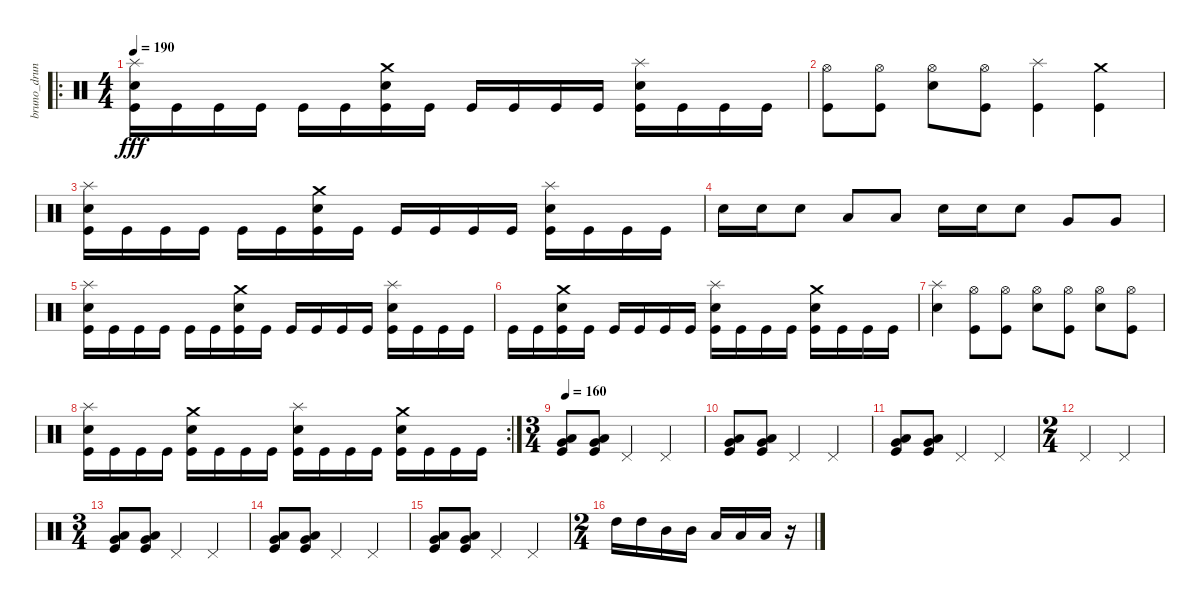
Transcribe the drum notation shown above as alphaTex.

\track ("bruno_druns" "bruno_drun") {instrument percussion}
\staff {score}
\articulation defaults
\ro
\ts (4 4)
\tempo 190
\clef neutral
\ks c
("Kick (hit)" "Electric Snare (hit)" "Splash (hit)").16{dy fff} "Kick (hit)".16 "Kick (hit)".16 "Kick (hit)".16 "Kick (hit)".16 "Kick (hit)".16 ("Kick (hit)" "Electric Snare (hit)" "Crash medium (hit)").16 "Kick (hit)".16 "Kick (hit)".16 "Kick (hit)".16 "Kick (hit)".16 "Kick (hit)".16 ("Kick (hit)" "Electric Snare (hit)" "Splash (hit)").16 "Kick (hit)".16 "Kick (hit)".16 "Kick (hit)".16 |
("Kick (hit)" "Hi-Hat (open)").8 ("Kick (hit)" "Hi-Hat (open)").8 ("Electric Snare (hit)" "Hi-Hat (open)").8 ("Kick (hit)" "Hi-Hat (open)").8 ("Kick (hit)" "Splash (hit)").4 ("Kick (hit)" "Crash medium (hit)").4 |
("Kick (hit)" "Electric Snare (hit)" "Splash (hit)").16 "Kick (hit)".16 "Kick (hit)".16 "Kick (hit)".16 "Kick (hit)".16 "Kick (hit)".16 ("Kick (hit)" "Electric Snare (hit)" "Crash medium (hit)").16 "Kick (hit)".16 "Kick (hit)".16 "Kick (hit)".16 "Kick (hit)".16 "Kick (hit)".16 ("Kick (hit)" "Electric Snare (hit)" "Splash (hit)").16 "Kick (hit)".16 "Kick (hit)".16 "Kick (hit)".16 |
"Electric Snare (hit)".16 "Electric Snare (hit)".16 "Electric Snare (hit)".8 "Low Tom (hit)".8 "Low Tom (hit)".8 "Electric Snare (hit)".16 "Electric Snare (hit)".16 "Electric Snare (hit)".8 "Very Low Tom (hit)".8 "Very Low Tom (hit)".8 |
("Kick (hit)" "Electric Snare (hit)" "Splash (hit)").16 "Kick (hit)".16 "Kick (hit)".16 "Kick (hit)".16 "Kick (hit)".16 "Kick (hit)".16 ("Kick (hit)" "Electric Snare (hit)" "Crash medium (hit)").16 "Kick (hit)".16 "Kick (hit)".16 "Kick (hit)".16 "Kick (hit)".16 "Kick (hit)".16 ("Kick (hit)" "Electric Snare (hit)" "Splash (hit)").16 "Kick (hit)".16 "Kick (hit)".16 "Kick (hit)".16 |
"Kick (hit)".16 "Kick (hit)".16 ("Kick (hit)" "Electric Snare (hit)" "Crash medium (hit)").16 "Kick (hit)".16 "Kick (hit)".16 "Kick (hit)".16 "Kick (hit)".16 "Kick (hit)".16 ("Kick (hit)" "Electric Snare (hit)" "Splash (hit)").16 "Kick (hit)".16 "Kick (hit)".16 "Kick (hit)".16 ("Kick (hit)" "Electric Snare (hit)" "Crash medium (hit)").16 "Kick (hit)".16 "Kick (hit)".16 "Kick (hit)".16 |
("Electric Snare (hit)" "Splash (hit)").4 ("Kick (hit)" "Hi-Hat (open)").8 ("Kick (hit)" "Hi-Hat (open)").8 ("Electric Snare (hit)" "Hi-Hat (open)").8 ("Kick (hit)" "Hi-Hat (open)").8 ("Electric Snare (hit)" "Hi-Hat (open)").8 ("Kick (hit)" "Hi-Hat (open)").8 |
\rc 2
("Kick (hit)" "Electric Snare (hit)" "Splash (hit)").16 "Kick (hit)".16 "Kick (hit)".16 "Kick (hit)".16 ("Kick (hit)" "Electric Snare (hit)" "Crash medium (hit)").16 "Kick (hit)".16 "Kick (hit)".16 "Kick (hit)".16 ("Kick (hit)" "Electric Snare (hit)" "Splash (hit)").16 "Kick (hit)".16 "Kick (hit)".16 "Kick (hit)".16 ("Kick (hit)" "Electric Snare (hit)" "Crash medium (hit)").16 "Kick (hit)".16 "Kick (hit)".16 "Kick (hit)".16 |
\ts (3 4)
\tempo 160
("Kick (hit)" "Low Tom (hit)" "Very Low Tom (hit)").8 ("Kick (hit)" "Low Tom (hit)" "Very Low Tom (hit)").8 "Pedal Hi-Hat (hit)".4 "Pedal Hi-Hat (hit)".4 |
("Kick (hit)" "Low Tom (hit)" "Very Low Tom (hit)").8 ("Kick (hit)" "Low Tom (hit)" "Very Low Tom (hit)").8 "Pedal Hi-Hat (hit)".4 "Pedal Hi-Hat (hit)".4 |
("Kick (hit)" "Low Tom (hit)" "Very Low Tom (hit)").8 ("Kick (hit)" "Low Tom (hit)" "Very Low Tom (hit)").8 "Pedal Hi-Hat (hit)".4 "Pedal Hi-Hat (hit)".4 |
\ts (2 4)
"Pedal Hi-Hat (hit)".4 "Pedal Hi-Hat (hit)".4 |
\ts (3 4)
("Kick (hit)" "Low Tom (hit)" "Very Low Tom (hit)").8 ("Kick (hit)" "Low Tom (hit)" "Very Low Tom (hit)").8 "Pedal Hi-Hat (hit)".4 "Pedal Hi-Hat (hit)".4 |
("Kick (hit)" "Low Tom (hit)" "Very Low Tom (hit)").8 ("Kick (hit)" "Low Tom (hit)" "Very Low Tom (hit)").8 "Pedal Hi-Hat (hit)".4 "Pedal Hi-Hat (hit)".4 |
("Kick (hit)" "Low Tom (hit)" "Very Low Tom (hit)").8 ("Kick (hit)" "Low Tom (hit)" "Very Low Tom (hit)").8 "Pedal Hi-Hat (hit)".4 "Pedal Hi-Hat (hit)".4 |
\ts (2 4)
"High Tom (hit)".16 "High Tom (hit)".16 "Mid Tom (hit)".16 "Mid Tom (hit)".16 "Low Tom (hit)".16 "Low Tom (hit)".16 "Low Tom (hit)".16 r.16
